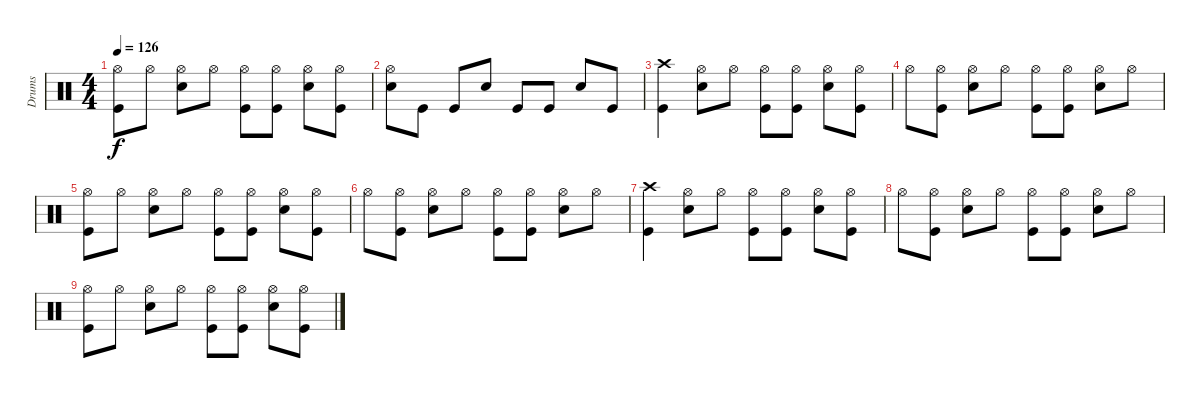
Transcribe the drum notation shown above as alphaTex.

\track ("Drums" "Drums") {instrument percussion}
\staff {score}
\articulation defaults
\ts (4 4)
\tempo 126
\clef neutral
\ks c
("Hi-Hat (open)" "Kick (hit)").8{dy f} "Hi-Hat (open)".8 ("Hi-Hat (open)" "Snare (hit) 2").8 "Hi-Hat (open)".8 ("Hi-Hat (open)" "Kick (hit)").8 ("Hi-Hat (open)" "Kick (hit)").8 ("Hi-Hat (open)" "Snare (hit) 2").8 ("Hi-Hat (open)" "Kick (hit)").8 |
("Snare (hit) 2" "Hi-Hat (open)").8 "Kick (hit)".8 "Kick (hit)".8 "Snare (hit) 2".8 "Kick (hit)".8 "Kick (hit)".8 "Snare (hit) 2".8 "Kick (hit)".8 |
("Crash high (hit)" "Kick (hit)").4 ("Hi-Hat (open)" "Snare (hit) 2").8 "Hi-Hat (open)".8 ("Hi-Hat (open)" "Kick (hit)").8 ("Hi-Hat (open)" "Kick (hit)").8 ("Hi-Hat (open)" "Snare (hit) 2").8 ("Hi-Hat (open)" "Kick (hit)").8 |
"Hi-Hat (open)".8 ("Hi-Hat (open)" "Kick (hit)").8 ("Snare (hit) 2" "Hi-Hat (open)").8 "Hi-Hat (open)".8 ("Hi-Hat (open)" "Kick (hit)").8 ("Hi-Hat (open)" "Kick (hit)").8 ("Hi-Hat (open)" "Snare (hit) 2").8 "Hi-Hat (open)".8 |
("Hi-Hat (open)" "Kick (hit)").8 "Hi-Hat (open)".8 ("Hi-Hat (open)" "Snare (hit) 2").8 "Hi-Hat (open)".8 ("Hi-Hat (open)" "Kick (hit)").8 ("Hi-Hat (open)" "Kick (hit)").8 ("Hi-Hat (open)" "Snare (hit) 2").8 ("Hi-Hat (open)" "Kick (hit)").8 |
"Hi-Hat (open)".8{volume 8} ("Hi-Hat (open)" "Kick (hit)").8 ("Snare (hit) 2" "Hi-Hat (open)").8 "Hi-Hat (open)".8 ("Hi-Hat (open)" "Kick (hit)").8 ("Hi-Hat (open)" "Kick (hit)").8 ("Hi-Hat (open)" "Snare (hit) 2").8 "Hi-Hat (open)".8 |
("Crash high (hit)" "Kick (hit)").4 ("Hi-Hat (open)" "Snare (hit) 2").8 "Hi-Hat (open)".8 ("Hi-Hat (open)" "Kick (hit)").8 ("Hi-Hat (open)" "Kick (hit)").8 ("Hi-Hat (open)" "Snare (hit) 2").8 ("Hi-Hat (open)" "Kick (hit)").8 |
"Hi-Hat (open)".8{volume 0} ("Hi-Hat (open)" "Kick (hit)").8 ("Snare (hit) 2" "Hi-Hat (open)").8 "Hi-Hat (open)".8 ("Hi-Hat (open)" "Kick (hit)").8 ("Hi-Hat (open)" "Kick (hit)").8 ("Hi-Hat (open)" "Snare (hit) 2").8 "Hi-Hat (open)".8 |
("Hi-Hat (open)" "Kick (hit)").8 "Hi-Hat (open)".8 ("Hi-Hat (open)" "Snare (hit) 2").8 "Hi-Hat (open)".8 ("Hi-Hat (open)" "Kick (hit)").8 ("Hi-Hat (open)" "Kick (hit)").8 ("Hi-Hat (open)" "Snare (hit) 2").8 ("Hi-Hat (open)" "Kick (hit)").8
